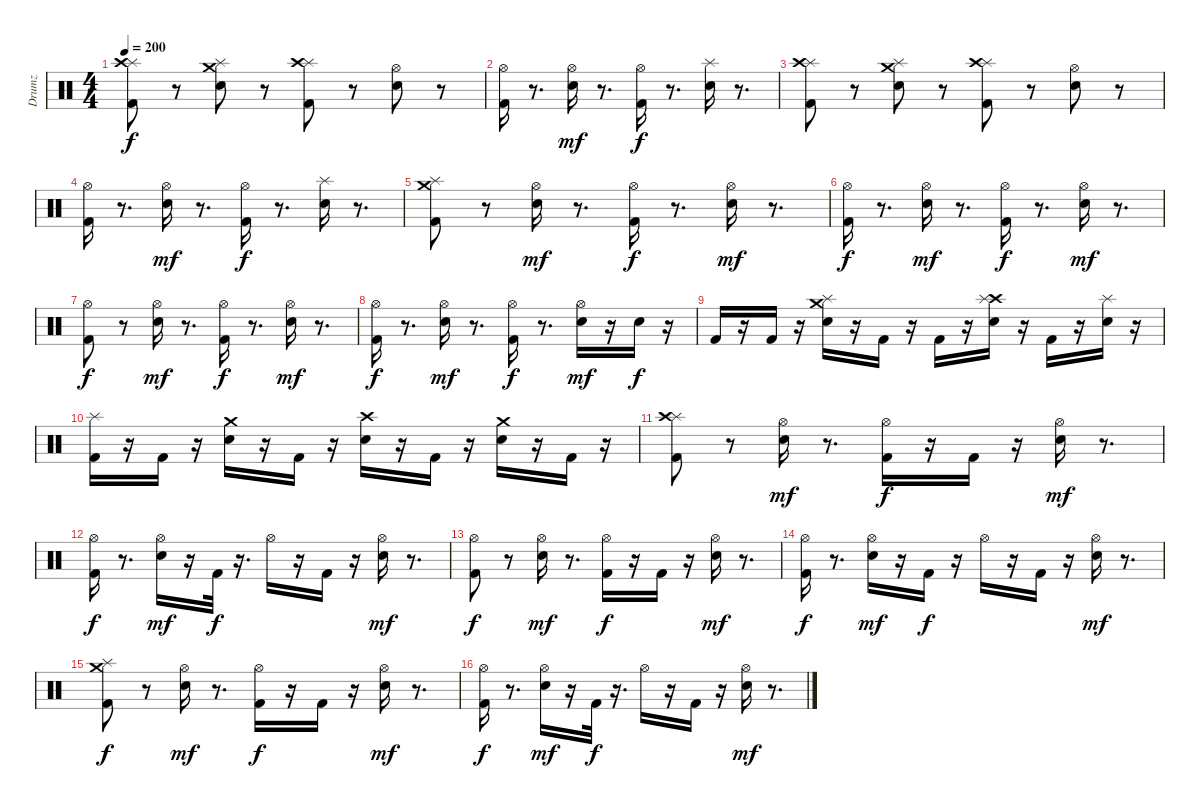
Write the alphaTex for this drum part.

\track ("Drumz" "Drumz") {instrument percussion}
\staff {score}
\articulation defaults
\ts (4 4)
\tempo 200
\clef neutral
\ks c
("Kick (hit) 2" "Splash (hit)" "Crash high (hit)").8{dy f} r.8 ("Snare (hit) 2" "Crash medium (hit)" "Splash (hit)").8 r.8 ("Kick (hit) 2" "Splash (hit)" "Crash high (hit)").8 r.8 ("Snare (hit) 2" "Hi-Hat (open)").8 r.8 |
("Kick (hit) 2" "Hi-Hat (open)").16 r.8{d} ("Snare (hit) 2" "Hi-Hat (open)").16{dy mf} r.8{d} ("Kick (hit) 2" "Hi-Hat (open)").16{dy f} r.8{d} ("Splash (hit)" "Snare (hit) 2").16 r.8{d} |
("Kick (hit) 2" "Splash (hit)" "Crash high (hit)").8 r.8 ("Snare (hit) 2" "Crash medium (hit)" "Splash (hit)").8 r.8 ("Kick (hit) 2" "Splash (hit)" "Crash high (hit)").8 r.8 ("Snare (hit) 2" "Hi-Hat (open)").8 r.8 |
("Kick (hit) 2" "Hi-Hat (open)").16 r.8{d} ("Snare (hit) 2" "Hi-Hat (open)").16{dy mf} r.8{d} ("Kick (hit) 2" "Hi-Hat (open)").16{dy f} r.8{d} ("Splash (hit)" "Snare (hit) 2").16 r.8{d} |
("Kick (hit) 2" "Splash (hit)" "Crash medium (hit)").8 r.8 ("Snare (hit) 2" "Hi-Hat (open)").16{dy mf} r.8{d} ("Hi-Hat (open)" "Kick (hit) 2").16{dy f} r.8{d} ("Snare (hit) 2" "Hi-Hat (open)").16{dy mf} r.8{d} |
("Kick (hit) 2" "Hi-Hat (open)").16{dy f} r.8{d} ("Snare (hit) 2" "Hi-Hat (open)").16{dy mf} r.8{d} ("Hi-Hat (open)" "Kick (hit) 2").16{dy f} r.8{d} ("Snare (hit) 2" "Hi-Hat (open)").16{dy mf} r.8{d} |
("Kick (hit) 2" "Hi-Hat (open)").8{dy f} r.8 ("Snare (hit) 2" "Hi-Hat (open)").16{dy mf} r.8{d} ("Hi-Hat (open)" "Kick (hit) 2").16{dy f} r.8{d} ("Snare (hit) 2" "Hi-Hat (open)").16{dy mf} r.8{d} |
("Kick (hit) 2" "Hi-Hat (open)").16{dy f} r.8{d} ("Snare (hit) 2" "Hi-Hat (open)").16{dy mf} r.8{d} ("Hi-Hat (open)" "Kick (hit) 2").16{dy f} r.8{d} ("Snare (hit) 2" "Hi-Hat (open)").16{dy mf} r.16 "Snare (hit) 2".16{dy f} r.16 |
"Kick (hit) 2".16 r.16 "Kick (hit) 2".16 r.16 ("Snare (hit) 2" "Splash (hit)" "Crash medium (hit)").16 r.16 "Kick (hit) 2".16 r.16 "Kick (hit) 2".16 r.16 ("Snare (hit) 2" "Crash high (hit)" "Splash (hit)").16 r.16 "Kick (hit) 2".16 r.16 ("Snare (hit) 2" "Splash (hit)").16 r.16 |
("Kick (hit) 2" "Splash (hit)").16 r.16 "Kick (hit) 2".16 r.16 ("Crash medium (hit)" "Snare (hit) 2").16 r.16 "Kick (hit) 2".16 r.16 ("Snare (hit) 2" "Crash high (hit)").16 r.16 "Kick (hit) 2".16 r.16 ("Snare (hit) 2" "Crash medium (hit)").16 r.16 "Kick (hit) 2".16 r.16 |
("Kick (hit) 2" "Splash (hit)" "Crash high (hit)").8 r.8 ("Snare (hit) 2" "Hi-Hat (open)").16{dy mf} r.8{d} ("Hi-Hat (open)" "Kick (hit) 2").16{dy f} r.16 "Kick (hit) 2".16 r.16 ("Snare (hit) 2" "Hi-Hat (open)").16{dy mf} r.8{d} |
("Kick (hit) 2" "Hi-Hat (open)").16{dy f} r.8{d} ("Snare (hit) 2" "Hi-Hat (open)").16{dy mf} r.16 "Kick (hit) 2".32{dy f} r.16{d} "Hi-Hat (open)".16 r.16 "Kick (hit) 2".16 r.16 ("Snare (hit) 2" "Hi-Hat (open)").16{dy mf} r.8{d} |
("Kick (hit) 2" "Hi-Hat (open)").8{dy f} r.8 ("Snare (hit) 2" "Hi-Hat (open)").16{dy mf} r.8{d} ("Hi-Hat (open)" "Kick (hit) 2").16{dy f} r.16 "Kick (hit) 2".16 r.16 ("Snare (hit) 2" "Hi-Hat (open)").16{dy mf} r.8{d} |
("Kick (hit) 2" "Hi-Hat (open)").16{dy f} r.8{d} ("Snare (hit) 2" "Hi-Hat (open)").16{dy mf} r.16 "Kick (hit) 2".16{dy f} r.16 "Hi-Hat (open)".16 r.16 "Kick (hit) 2".16 r.16 ("Snare (hit) 2" "Hi-Hat (open)").16{dy mf} r.8{d} |
("Kick (hit) 2" "Splash (hit)" "Crash medium (hit)").8{dy f} r.8 ("Snare (hit) 2" "Hi-Hat (open)").16{dy mf} r.8{d} ("Hi-Hat (open)" "Kick (hit) 2").16{dy f} r.16 "Kick (hit) 2".16 r.16 ("Snare (hit) 2" "Hi-Hat (open)").16{dy mf} r.8{d} |
("Kick (hit) 2" "Hi-Hat (open)").16{dy f} r.8{d} ("Snare (hit) 2" "Hi-Hat (open)").16{dy mf} r.16 "Kick (hit) 2".32{dy f} r.16{d} "Hi-Hat (open)".16 r.16 "Kick (hit) 2".16 r.16 ("Snare (hit) 2" "Hi-Hat (open)").16{dy mf} r.8{d}
